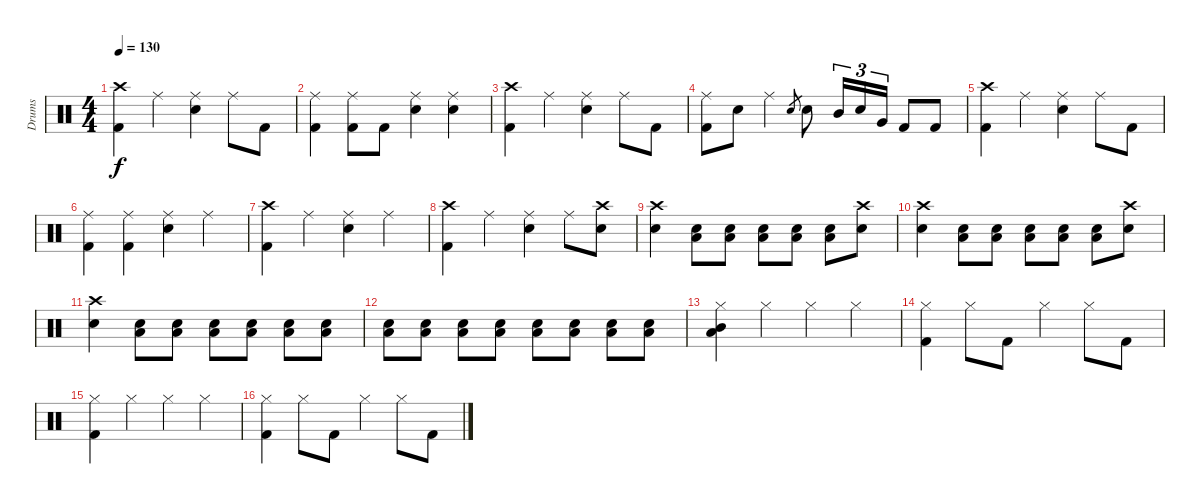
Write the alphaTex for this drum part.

\track ("Drums" "Drums") {instrument percussion}
\staff {score}
\articulation defaults
\ts (4 4)
\tempo 130
\clef neutral
\ks c
("Crash high (hit)" "Kick (hit) 2").4{dy f} "Ride (middle)".4 ("Ride (middle)" "Electric Snare (hit)").4 "Ride (middle)".8 "Kick (hit) 2".8 |
("Ride (middle)" "Kick (hit) 2").4 ("Ride (middle)" "Kick (hit) 2").8 "Kick (hit) 2".8 ("Ride (middle)" "Electric Snare (hit)").4 ("Ride (middle)" "Electric Snare (hit)").4 |
("Crash high (hit)" "Kick (hit) 2").4 "Ride (middle)".4 ("Ride (middle)" "Electric Snare (hit)").4 "Ride (middle)".8 "Kick (hit) 2".8 |
("Ride (middle)" "Kick (hit) 2").8 "Electric Snare (hit)".8 "Ride (middle)".4 "Electric Snare (hit)".8{gr} "Electric Snare (hit)".8 "Mid Tom (hit)".16{tu (3 2)} "Electric Snare (hit)".16{tu (3 2)} "Very Low Tom (hit)".16{tu (3 2)} "Kick (hit) 2".8 "Kick (hit) 2".8 |
("Crash high (hit)" "Kick (hit) 2").4 "Ride (middle)".4 ("Ride (middle)" "Electric Snare (hit)").4 "Ride (middle)".8 "Kick (hit) 2".8 |
("Ride (middle)" "Kick (hit) 2").4 ("Ride (middle)" "Kick (hit) 2").4 ("Ride (middle)" "Electric Snare (hit)").4 "Ride (middle)".4 |
("Crash high (hit)" "Kick (hit) 2").4 "Ride (middle)".4 ("Ride (middle)" "Electric Snare (hit)").4 "Ride (middle)".4 |
("Crash high (hit)" "Kick (hit) 2").4 "Ride (middle)".4 ("Ride (middle)" "Electric Snare (hit)").4 "Ride (middle)".8 ("Crash high (hit)" "Electric Snare (hit)").8 |
("Crash high (hit)" "Electric Snare (hit)").4 ("Electric Snare (hit)" "Low Tom (hit)").8 ("Electric Snare (hit)" "Low Tom (hit)").8 ("Electric Snare (hit)" "Low Tom (hit)").8 ("Electric Snare (hit)" "Low Tom (hit)").8 ("Electric Snare (hit)" "Low Tom (hit)").8 ("Crash high (hit)" "Electric Snare (hit)").8 |
("Crash high (hit)" "Electric Snare (hit)").4 ("Electric Snare (hit)" "Low Tom (hit)").8 ("Electric Snare (hit)" "Low Tom (hit)").8 ("Electric Snare (hit)" "Low Tom (hit)").8 ("Electric Snare (hit)" "Low Tom (hit)").8 ("Electric Snare (hit)" "Low Tom (hit)").8 ("Crash high (hit)" "Electric Snare (hit)").8 |
("Crash high (hit)" "Electric Snare (hit)").4 ("Electric Snare (hit)" "Low Tom (hit)").8 ("Electric Snare (hit)" "Low Tom (hit)").8 ("Electric Snare (hit)" "Low Tom (hit)").8 ("Electric Snare (hit)" "Low Tom (hit)").8 ("Electric Snare (hit)" "Low Tom (hit)").8 ("Electric Snare (hit)" "Low Tom (hit)").8 |
("Electric Snare (hit)" "Low Tom (hit)").8 ("Electric Snare (hit)" "Low Tom (hit)").8 ("Electric Snare (hit)" "Low Tom (hit)").8 ("Electric Snare (hit)" "Low Tom (hit)").8 ("Electric Snare (hit)" "Low Tom (hit)").8 ("Electric Snare (hit)" "Low Tom (hit)").8 ("Electric Snare (hit)" "Low Tom (hit)").8 ("Electric Snare (hit)" "Low Tom (hit)").8 |
("Hi-Hat (closed)" "Mid Tom (hit)" "Low Tom (hit)").4 "Hi-Hat (closed)".4 "Hi-Hat (closed)".4 "Hi-Hat (closed)".4 |
("Hi-Hat (closed)" "Kick (hit) 2").4 "Hi-Hat (closed)".8 "Kick (hit) 2".8 "Hi-Hat (closed)".4 "Hi-Hat (closed)".8 "Kick (hit) 2".8 |
("Hi-Hat (closed)" "Kick (hit) 2").4 "Hi-Hat (closed)".4 "Hi-Hat (closed)".4 "Hi-Hat (closed)".4 |
("Hi-Hat (closed)" "Kick (hit) 2").4 "Hi-Hat (closed)".8 "Kick (hit) 2".8 "Hi-Hat (closed)".4 "Hi-Hat (closed)".8 "Kick (hit) 2".8
